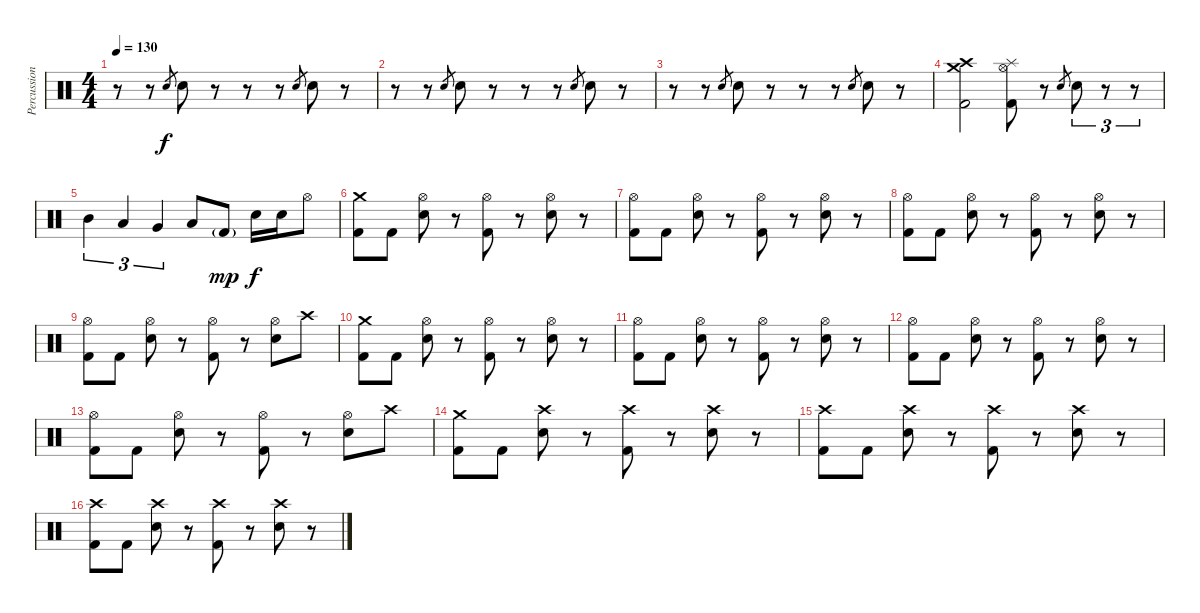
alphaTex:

\track ("Percussions" "Percussion") {instrument percussion}
\staff {score}
\articulation defaults
\ts (4 4)
\tempo 130
\clef neutral
\ks c
r.8{dy f} r.8 "Electric Snare (hit)".8{gr} "Electric Snare (hit)".8 r.8 r.8 r.8 "Electric Snare (hit)".8{gr} "Electric Snare (hit)".8 r.8 |
r.8 r.8 "Electric Snare (hit)".8{gr} "Electric Snare (hit)".8 r.8 r.8 r.8 "Electric Snare (hit)".8{gr} "Electric Snare (hit)".8 r.8 |
r.8 r.8 "Electric Snare (hit)".8{gr} "Electric Snare (hit)".8 r.8 r.8 r.8 "Electric Snare (hit)".8{gr} "Electric Snare (hit)".8 r.8 |
("Crash medium (hit)" "Crash high (hit)" "Kick (hit) 2").2 ("Hi-Hat (open)" "Splash (hit)" "Kick (hit) 2").8 r.8 "Electric Snare (hit)".8{gr} "Electric Snare (hit)".8{tu (3 2)} r.8{tu (3 2)} r.8{tu (3 2)} |
"Mid Tom (hit)".4{tu (3 2)} "Low Tom (hit)".4{tu (3 2)} "Very Low Tom (hit)".4{tu (3 2)} "Low Floor Tom (hit)".8 "Kick (hit) 2"{g}.8{dy mp} "Electric Snare (hit)".16{dy f} "Electric Snare (hit)".16 "Hi-Hat (open)".8 |
("Crash medium (hit)" "Kick (hit) 2").8 "Kick (hit) 2".8 ("Hi-Hat (open)" "Electric Snare (hit)").8 r.8 ("Hi-Hat (open)" "Kick (hit) 2").8 r.8 ("Hi-Hat (open)" "Electric Snare (hit)").8 r.8 |
("Hi-Hat (open)" "Kick (hit) 2").8 "Kick (hit) 2".8 ("Hi-Hat (open)" "Electric Snare (hit)").8 r.8 ("Hi-Hat (open)" "Kick (hit) 2").8 r.8 ("Hi-Hat (open)" "Electric Snare (hit)").8 r.8 |
("Hi-Hat (open)" "Kick (hit) 2").8 "Kick (hit) 2".8 ("Hi-Hat (open)" "Electric Snare (hit)").8 r.8 ("Hi-Hat (open)" "Kick (hit) 2").8 r.8 ("Hi-Hat (open)" "Electric Snare (hit)").8 r.8 |
("Hi-Hat (open)" "Kick (hit) 2").8 "Kick (hit) 2".8 ("Hi-Hat (open)" "Electric Snare (hit)").8 r.8 ("Hi-Hat (open)" "Kick (hit) 2").8 r.8 ("Hi-Hat (open)" "Electric Snare (hit)").8 "Crash high (hit)".8 |
("Crash medium (hit)" "Kick (hit) 2").8 "Kick (hit) 2".8 ("Hi-Hat (open)" "Electric Snare (hit)").8 r.8 ("Hi-Hat (open)" "Kick (hit) 2").8 r.8 ("Hi-Hat (open)" "Electric Snare (hit)").8 r.8 |
("Hi-Hat (open)" "Kick (hit) 2").8 "Kick (hit) 2".8 ("Hi-Hat (open)" "Electric Snare (hit)").8 r.8 ("Hi-Hat (open)" "Kick (hit) 2").8 r.8 ("Hi-Hat (open)" "Electric Snare (hit)").8 r.8 |
("Hi-Hat (open)" "Kick (hit) 2").8 "Kick (hit) 2".8 ("Hi-Hat (open)" "Electric Snare (hit)").8 r.8 ("Hi-Hat (open)" "Kick (hit) 2").8 r.8 ("Hi-Hat (open)" "Electric Snare (hit)").8 r.8 |
("Hi-Hat (open)" "Kick (hit) 2").8 "Kick (hit) 2".8 ("Hi-Hat (open)" "Electric Snare (hit)").8 r.8 ("Hi-Hat (open)" "Kick (hit) 2").8 r.8 ("Hi-Hat (open)" "Electric Snare (hit)").8 "Crash high (hit)".8 |
("Crash medium (hit)" "Kick (hit) 2").8 "Kick (hit) 2".8 ("Crash high (hit)" "Electric Snare (hit)").8 r.8 ("Crash high (hit)" "Kick (hit) 2").8 r.8 ("Crash high (hit)" "Electric Snare (hit)").8 r.8 |
("Crash high (hit)" "Kick (hit) 2").8 "Kick (hit) 2".8 ("Crash high (hit)" "Electric Snare (hit)").8 r.8 ("Crash high (hit)" "Kick (hit) 2").8 r.8 ("Crash high (hit)" "Electric Snare (hit)").8 r.8 |
("Crash high (hit)" "Kick (hit) 2").8 "Kick (hit) 2".8 ("Crash high (hit)" "Electric Snare (hit)").8 r.8 ("Crash high (hit)" "Kick (hit) 2").8 r.8 ("Crash high (hit)" "Electric Snare (hit)").8 r.8
